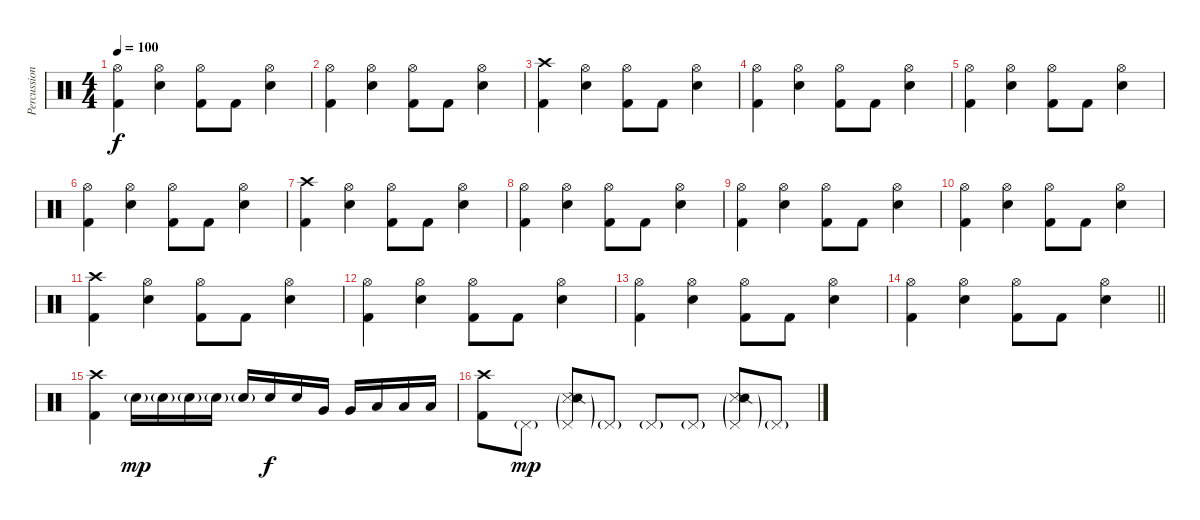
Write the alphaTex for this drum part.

\track ("Percussion" "Percussion") {instrument percussion}
\staff {score}
\articulation defaults
\ts (4 4)
\tempo 100
\clef neutral
\ks c
("Kick (hit) 2" "Hi-Hat (open)").4{dy f} ("Electric Snare (hit)" "Hi-Hat (open)").4 ("Kick (hit) 2" "Hi-Hat (open)").8 "Kick (hit) 2".8 ("Electric Snare (hit)" "Hi-Hat (open)").4 |
("Kick (hit) 2" "Hi-Hat (open)").4 ("Electric Snare (hit)" "Hi-Hat (open)").4 ("Kick (hit) 2" "Hi-Hat (open)").8 "Kick (hit) 2".8 ("Electric Snare (hit)" "Hi-Hat (open)").4 |
("Kick (hit) 2" "Crash high (hit)").4 ("Electric Snare (hit)" "Hi-Hat (open)").4 ("Kick (hit) 2" "Hi-Hat (open)").8 "Kick (hit) 2".8 ("Electric Snare (hit)" "Hi-Hat (open)").4 |
("Kick (hit) 2" "Hi-Hat (open)").4 ("Electric Snare (hit)" "Hi-Hat (open)").4 ("Kick (hit) 2" "Hi-Hat (open)").8 "Kick (hit) 2".8 ("Electric Snare (hit)" "Hi-Hat (open)").4 |
("Kick (hit) 2" "Hi-Hat (open)").4 ("Electric Snare (hit)" "Hi-Hat (open)").4 ("Kick (hit) 2" "Hi-Hat (open)").8 "Kick (hit) 2".8 ("Electric Snare (hit)" "Hi-Hat (open)").4 |
("Kick (hit) 2" "Hi-Hat (open)").4 ("Electric Snare (hit)" "Hi-Hat (open)").4 ("Kick (hit) 2" "Hi-Hat (open)").8 "Kick (hit) 2".8 ("Electric Snare (hit)" "Hi-Hat (open)").4 |
("Kick (hit) 2" "Crash high (hit)").4 ("Electric Snare (hit)" "Hi-Hat (open)").4 ("Kick (hit) 2" "Hi-Hat (open)").8 "Kick (hit) 2".8 ("Electric Snare (hit)" "Hi-Hat (open)").4 |
("Kick (hit) 2" "Hi-Hat (open)").4 ("Electric Snare (hit)" "Hi-Hat (open)").4 ("Kick (hit) 2" "Hi-Hat (open)").8 "Kick (hit) 2".8 ("Electric Snare (hit)" "Hi-Hat (open)").4 |
("Kick (hit) 2" "Hi-Hat (open)").4 ("Electric Snare (hit)" "Hi-Hat (open)").4 ("Kick (hit) 2" "Hi-Hat (open)").8 "Kick (hit) 2".8 ("Electric Snare (hit)" "Hi-Hat (open)").4 |
("Kick (hit) 2" "Hi-Hat (open)").4 ("Electric Snare (hit)" "Hi-Hat (open)").4 ("Kick (hit) 2" "Hi-Hat (open)").8 "Kick (hit) 2".8 ("Electric Snare (hit)" "Hi-Hat (open)").4 |
("Kick (hit) 2" "Crash high (hit)").4 ("Electric Snare (hit)" "Hi-Hat (open)").4 ("Kick (hit) 2" "Hi-Hat (open)").8 "Kick (hit) 2".8 ("Electric Snare (hit)" "Hi-Hat (open)").4 |
("Kick (hit) 2" "Hi-Hat (open)").4 ("Electric Snare (hit)" "Hi-Hat (open)").4 ("Kick (hit) 2" "Hi-Hat (open)").8 "Kick (hit) 2".8 ("Electric Snare (hit)" "Hi-Hat (open)").4 |
("Kick (hit) 2" "Hi-Hat (open)").4 ("Electric Snare (hit)" "Hi-Hat (open)").4 ("Kick (hit) 2" "Hi-Hat (open)").8 "Kick (hit) 2".8 ("Electric Snare (hit)" "Hi-Hat (open)").4 |
\barLineRight lightlight
("Kick (hit) 2" "Hi-Hat (open)").4 ("Electric Snare (hit)" "Hi-Hat (open)").4 ("Kick (hit) 2" "Hi-Hat (open)").8 "Kick (hit) 2".8 ("Electric Snare (hit)" "Hi-Hat (open)").4 |
("Kick (hit) 2" "Crash high (hit)").4 "Electric Snare (hit)"{g}.16{dy mp} "Electric Snare (hit)"{g}.16 "Electric Snare (hit)"{g}.16 "Electric Snare (hit)"{g}.16 "Electric Snare (hit)"{g}.16 "Electric Snare (hit)".16{dy f} "Electric Snare (hit)".16 "Very Low Tom (hit)".16 "Very Low Tom (hit)".16 "Low Floor Tom (hit)".16 "Low Floor Tom (hit)".16 "Low Floor Tom (hit)".16 |
("Kick (hit) 2" "Crash high (hit)").8 "Pedal Hi-Hat (hit)"{g}.8{dy mp} ("Metronome (hit)"{g} "Snare (side stick) 2"{g} "Pedal Hi-Hat (hit)"{g}).8 "Pedal Hi-Hat (hit)"{g}.8 "Pedal Hi-Hat (hit)"{g}.8 "Pedal Hi-Hat (hit)"{g}.8 ("Metronome (hit)"{g} "Snare (side stick) 2"{g} "Pedal Hi-Hat (hit)"{g}).8 "Pedal Hi-Hat (hit)"{g}.8
